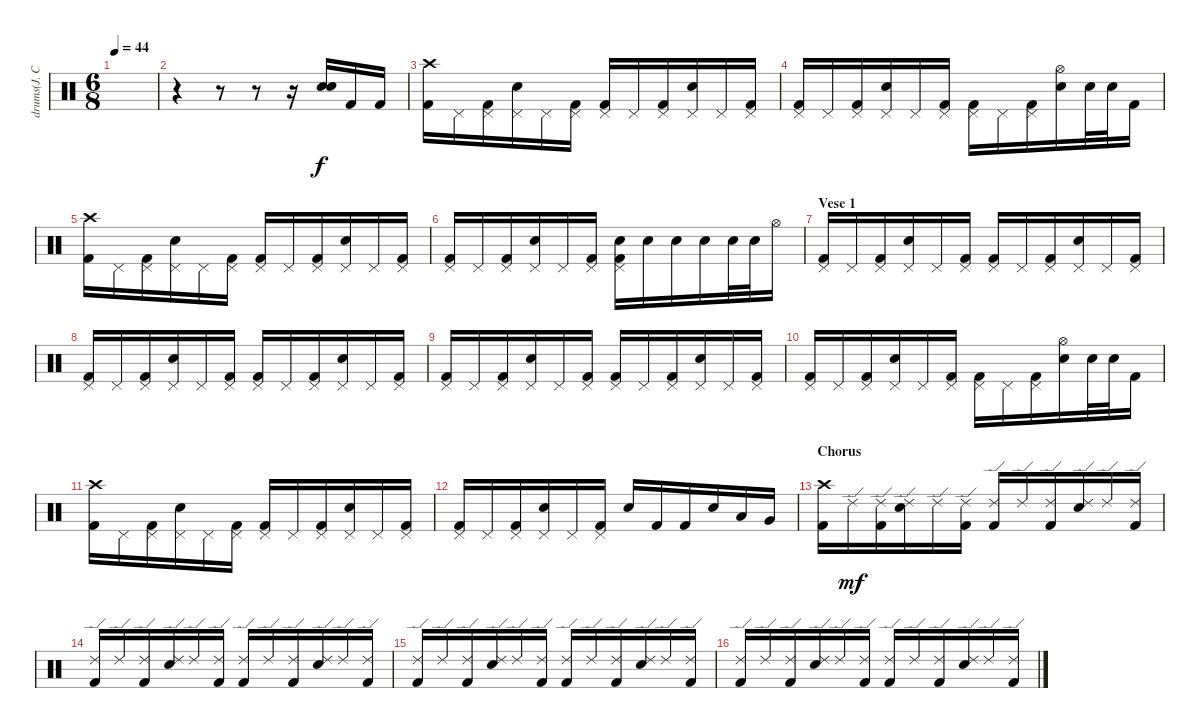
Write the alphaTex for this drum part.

\track ("drums(J. Cramer)" "drums(J. C") {instrument percussion}
\staff {score}
\articulation defaults
\ts (6 8)
\tempo 44
\clef neutral
\ks c
|
r.4 r.8 r.8 r.16 ("Electric Snare (hit)" "Snare (hit) 2").16 "Kick (hit) 2".16 "Kick (hit) 2".16 |
("Kick (hit) 2" "Crash high (hit)").16 "Pedal Hi-Hat (hit)".16 ("Pedal Hi-Hat (hit)" "Kick (hit) 2").16 ("Pedal Hi-Hat (hit)" "Electric Snare (hit)").16 "Pedal Hi-Hat (hit)".16 ("Pedal Hi-Hat (hit)" "Kick (hit) 2").16 ("Pedal Hi-Hat (hit)" "Kick (hit) 2").16 "Pedal Hi-Hat (hit)".16 ("Pedal Hi-Hat (hit)" "Kick (hit) 2").16 ("Pedal Hi-Hat (hit)" "Electric Snare (hit)").16 "Pedal Hi-Hat (hit)".16 ("Pedal Hi-Hat (hit)" "Kick (hit) 2").16 |
("Pedal Hi-Hat (hit)" "Kick (hit) 2").16 "Pedal Hi-Hat (hit)".16 ("Pedal Hi-Hat (hit)" "Kick (hit) 2").16 ("Pedal Hi-Hat (hit)" "Electric Snare (hit)").16 "Pedal Hi-Hat (hit)".16 ("Pedal Hi-Hat (hit)" "Kick (hit) 2").16 ("Pedal Hi-Hat (hit)" "Kick (hit) 2").16 "Pedal Hi-Hat (hit)".16 ("Pedal Hi-Hat (hit)" "Kick (hit) 2").16 ("Hi-Hat (open)" "Electric Snare (hit)").16 "Electric Snare (hit)".32 "Electric Snare (hit)".32 "Kick (hit) 2".16 |
("Kick (hit) 2" "Crash high (hit)").16 "Pedal Hi-Hat (hit)".16 ("Pedal Hi-Hat (hit)" "Kick (hit) 2").16 ("Pedal Hi-Hat (hit)" "Electric Snare (hit)").16 "Pedal Hi-Hat (hit)".16 ("Pedal Hi-Hat (hit)" "Kick (hit) 2").16 ("Pedal Hi-Hat (hit)" "Kick (hit) 2").16 "Pedal Hi-Hat (hit)".16 ("Pedal Hi-Hat (hit)" "Kick (hit) 2").16 ("Pedal Hi-Hat (hit)" "Electric Snare (hit)").16 "Pedal Hi-Hat (hit)".16 ("Pedal Hi-Hat (hit)" "Kick (hit) 2").16 |
("Pedal Hi-Hat (hit)" "Kick (hit) 2").16 "Pedal Hi-Hat (hit)".16 ("Pedal Hi-Hat (hit)" "Kick (hit) 2").16 ("Pedal Hi-Hat (hit)" "Electric Snare (hit)").16 "Pedal Hi-Hat (hit)".16 ("Pedal Hi-Hat (hit)" "Kick (hit) 2").16 ("Pedal Hi-Hat (hit)" "Kick (hit) 2" "Electric Snare (hit)").16 "Electric Snare (hit)".16 "Electric Snare (hit)".16 "Electric Snare (hit)".16 "Electric Snare (hit)".32 "Electric Snare (hit)".32 "Hi-Hat (open)".16 |
\section ("" "Vese 1")
("Pedal Hi-Hat (hit)" "Kick (hit) 2").16 "Pedal Hi-Hat (hit)".16 ("Pedal Hi-Hat (hit)" "Kick (hit) 2").16 ("Pedal Hi-Hat (hit)" "Electric Snare (hit)").16 "Pedal Hi-Hat (hit)".16 ("Pedal Hi-Hat (hit)" "Kick (hit) 2").16 ("Pedal Hi-Hat (hit)" "Kick (hit) 2").16 "Pedal Hi-Hat (hit)".16 ("Pedal Hi-Hat (hit)" "Kick (hit) 2").16 ("Pedal Hi-Hat (hit)" "Electric Snare (hit)").16 "Pedal Hi-Hat (hit)".16 ("Pedal Hi-Hat (hit)" "Kick (hit) 2").16 |
("Pedal Hi-Hat (hit)" "Kick (hit) 2").16 "Pedal Hi-Hat (hit)".16 ("Pedal Hi-Hat (hit)" "Kick (hit) 2").16 ("Pedal Hi-Hat (hit)" "Electric Snare (hit)").16 "Pedal Hi-Hat (hit)".16 ("Pedal Hi-Hat (hit)" "Kick (hit) 2").16 ("Pedal Hi-Hat (hit)" "Kick (hit) 2").16 "Pedal Hi-Hat (hit)".16 ("Pedal Hi-Hat (hit)" "Kick (hit) 2").16 ("Pedal Hi-Hat (hit)" "Electric Snare (hit)").16 "Pedal Hi-Hat (hit)".16 ("Pedal Hi-Hat (hit)" "Kick (hit) 2").16 |
("Pedal Hi-Hat (hit)" "Kick (hit) 2").16 "Pedal Hi-Hat (hit)".16 ("Pedal Hi-Hat (hit)" "Kick (hit) 2").16 ("Pedal Hi-Hat (hit)" "Electric Snare (hit)").16 "Pedal Hi-Hat (hit)".16 ("Pedal Hi-Hat (hit)" "Kick (hit) 2").16 ("Pedal Hi-Hat (hit)" "Kick (hit) 2").16 "Pedal Hi-Hat (hit)".16 ("Pedal Hi-Hat (hit)" "Kick (hit) 2").16 ("Pedal Hi-Hat (hit)" "Electric Snare (hit)").16 "Pedal Hi-Hat (hit)".16 ("Pedal Hi-Hat (hit)" "Kick (hit) 2").16 |
("Pedal Hi-Hat (hit)" "Kick (hit) 2").16 "Pedal Hi-Hat (hit)".16 ("Pedal Hi-Hat (hit)" "Kick (hit) 2").16 ("Pedal Hi-Hat (hit)" "Electric Snare (hit)").16 "Pedal Hi-Hat (hit)".16 ("Pedal Hi-Hat (hit)" "Kick (hit) 2").16 ("Pedal Hi-Hat (hit)" "Kick (hit) 2").16 "Pedal Hi-Hat (hit)".16 ("Pedal Hi-Hat (hit)" "Kick (hit) 2").16 ("Hi-Hat (open)" "Electric Snare (hit)").16 "Electric Snare (hit)".32 "Electric Snare (hit)".32 "Kick (hit) 2".16 |
("Kick (hit) 2" "Crash high (hit)").16 "Pedal Hi-Hat (hit)".16 ("Pedal Hi-Hat (hit)" "Kick (hit) 2").16 ("Pedal Hi-Hat (hit)" "Electric Snare (hit)").16 "Pedal Hi-Hat (hit)".16 ("Pedal Hi-Hat (hit)" "Kick (hit) 2").16 ("Pedal Hi-Hat (hit)" "Kick (hit) 2").16 "Pedal Hi-Hat (hit)".16 ("Pedal Hi-Hat (hit)" "Kick (hit) 2").16 ("Pedal Hi-Hat (hit)" "Electric Snare (hit)").16 "Pedal Hi-Hat (hit)".16 ("Pedal Hi-Hat (hit)" "Kick (hit) 2").16 |
("Pedal Hi-Hat (hit)" "Kick (hit) 2").16 "Pedal Hi-Hat (hit)".16 ("Pedal Hi-Hat (hit)" "Kick (hit) 2").16 ("Pedal Hi-Hat (hit)" "Electric Snare (hit)").16 "Pedal Hi-Hat (hit)".16 ("Pedal Hi-Hat (hit)" "Kick (hit) 2").16 "Electric Snare (hit)".16 "Kick (hit) 2".16 "Kick (hit) 2".16 "Electric Snare (hit)".16 "Low Tom (hit)".16 "Very Low Tom (hit)".16 |
\section ("" "Chorus")
("Kick (hit) 2" "Crash high (hit)").16 "Ride (edge) 2".16{dy mf} ("Ride (edge) 2" "Kick (hit) 2").16 ("Ride (edge) 2" "Electric Snare (hit)").16 "Ride (edge) 2".16 ("Ride (edge) 2" "Kick (hit) 2").16 ("Ride (edge) 2" "Kick (hit) 2").16 "Ride (edge) 2".16 ("Ride (edge) 2" "Kick (hit) 2").16 ("Ride (edge) 2" "Electric Snare (hit)").16 "Ride (edge) 2".16 ("Ride (edge) 2" "Kick (hit) 2").16 |
("Ride (edge) 2" "Kick (hit) 2").16 "Ride (edge) 2".16 ("Ride (edge) 2" "Kick (hit) 2").16 ("Ride (edge) 2" "Electric Snare (hit)").16 "Ride (edge) 2".16 ("Ride (edge) 2" "Kick (hit) 2").16 ("Ride (edge) 2" "Kick (hit) 2").16 "Ride (edge) 2".16 ("Ride (edge) 2" "Kick (hit) 2").16 ("Ride (edge) 2" "Electric Snare (hit)").16 "Ride (edge) 2".16 ("Ride (edge) 2" "Kick (hit) 2").16 |
("Ride (edge) 2" "Kick (hit) 2").16 "Ride (edge) 2".16 ("Ride (edge) 2" "Kick (hit) 2").16 ("Ride (edge) 2" "Electric Snare (hit)").16 "Ride (edge) 2".16 ("Ride (edge) 2" "Kick (hit) 2").16 ("Ride (edge) 2" "Kick (hit) 2").16 "Ride (edge) 2".16 ("Ride (edge) 2" "Kick (hit) 2").16 ("Ride (edge) 2" "Electric Snare (hit)").16 "Ride (edge) 2".16 ("Ride (edge) 2" "Kick (hit) 2").16 |
("Ride (edge) 2" "Kick (hit) 2").16 "Ride (edge) 2".16 ("Ride (edge) 2" "Kick (hit) 2").16 ("Ride (edge) 2" "Electric Snare (hit)").16 "Ride (edge) 2".16 ("Ride (edge) 2" "Kick (hit) 2").16 ("Ride (edge) 2" "Kick (hit) 2").16 "Ride (edge) 2".16 ("Ride (edge) 2" "Kick (hit) 2").16 ("Ride (edge) 2" "Electric Snare (hit)").16 "Ride (edge) 2".16 ("Ride (edge) 2" "Kick (hit) 2").16
